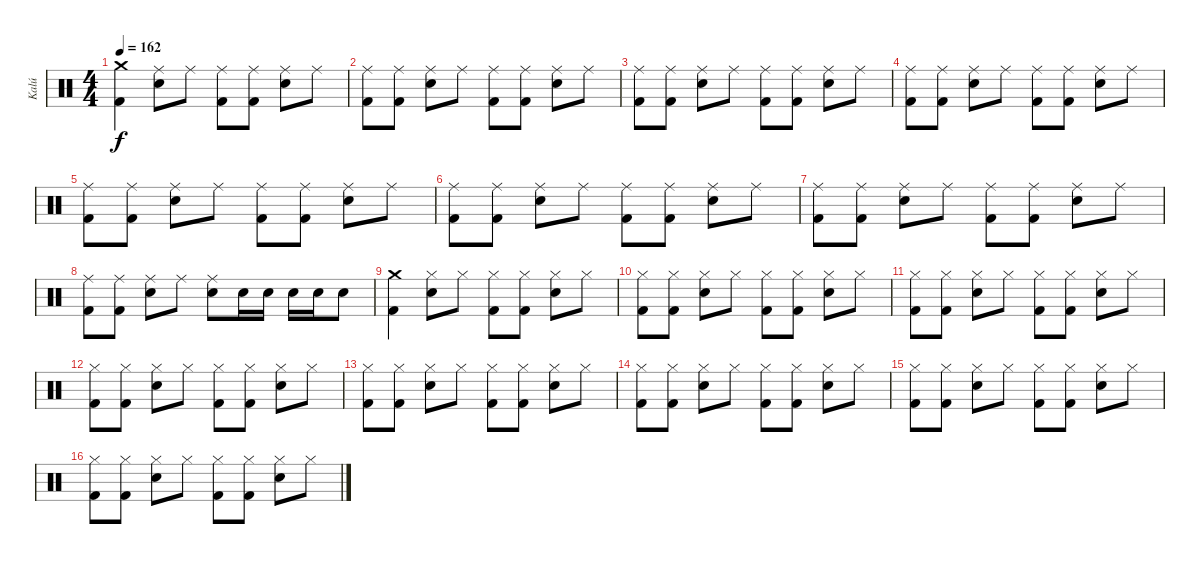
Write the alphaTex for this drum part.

\track ("Kalú" "Kalú") {instrument percussion}
\staff {score}
\articulation defaults
\ts (4 4)
\tempo 162
\clef neutral
\ks c
("Crash medium (hit)" "Kick (hit) 2").4{dy f} ("Ride (middle)" "Electric Snare (hit)").8 "Ride (middle)".8 ("Ride (middle)" "Kick (hit) 2").8 ("Ride (middle)" "Kick (hit) 2").8 ("Ride (middle)" "Electric Snare (hit)").8 "Ride (middle)".8 |
("Ride (middle)" "Kick (hit) 2").8 ("Ride (middle)" "Kick (hit) 2").8 ("Ride (middle)" "Electric Snare (hit)").8 "Ride (middle)".8 ("Ride (middle)" "Kick (hit) 2").8 ("Ride (middle)" "Kick (hit) 2").8 ("Ride (middle)" "Electric Snare (hit)").8 "Ride (middle)".8 |
("Ride (middle)" "Kick (hit) 2").8 ("Ride (middle)" "Kick (hit) 2").8 ("Ride (middle)" "Electric Snare (hit)").8 "Ride (middle)".8 ("Ride (middle)" "Kick (hit) 2").8 ("Ride (middle)" "Kick (hit) 2").8 ("Ride (middle)" "Electric Snare (hit)").8 "Ride (middle)".8 |
("Ride (middle)" "Kick (hit) 2").8 ("Ride (middle)" "Kick (hit) 2").8 ("Ride (middle)" "Electric Snare (hit)").8 "Ride (middle)".8 ("Ride (middle)" "Kick (hit) 2").8 ("Ride (middle)" "Kick (hit) 2").8 ("Ride (middle)" "Electric Snare (hit)").8 "Ride (middle)".8 |
("Ride (middle)" "Kick (hit) 2").8 ("Ride (middle)" "Kick (hit) 2").8 ("Ride (middle)" "Electric Snare (hit)").8 "Ride (middle)".8 ("Ride (middle)" "Kick (hit) 2").8 ("Ride (middle)" "Kick (hit) 2").8 ("Ride (middle)" "Electric Snare (hit)").8 "Ride (middle)".8 |
("Ride (middle)" "Kick (hit) 2").8 ("Ride (middle)" "Kick (hit) 2").8 ("Ride (middle)" "Electric Snare (hit)").8 "Ride (middle)".8 ("Ride (middle)" "Kick (hit) 2").8 ("Ride (middle)" "Kick (hit) 2").8 ("Ride (middle)" "Electric Snare (hit)").8 "Ride (middle)".8 |
("Ride (middle)" "Kick (hit) 2").8 ("Ride (middle)" "Kick (hit) 2").8 ("Ride (middle)" "Electric Snare (hit)").8 "Ride (middle)".8 ("Ride (middle)" "Kick (hit) 2").8 ("Ride (middle)" "Kick (hit) 2").8 ("Ride (middle)" "Electric Snare (hit)").8 "Ride (middle)".8 |
("Ride (middle)" "Kick (hit) 2").8 ("Ride (middle)" "Kick (hit) 2").8 ("Ride (middle)" "Electric Snare (hit)").8 "Ride (middle)".8 ("Ride (middle)" "Electric Snare (hit)").8 "Electric Snare (hit)".16 "Electric Snare (hit)".16 "Electric Snare (hit)".16 "Electric Snare (hit)".16 "Electric Snare (hit)".8 |
("Crash medium (hit)" "Kick (hit) 2").4 ("Hi-Hat (closed)" "Electric Snare (hit)").8 "Hi-Hat (closed)".8 ("Hi-Hat (closed)" "Kick (hit) 2").8 ("Hi-Hat (closed)" "Kick (hit) 2").8 ("Hi-Hat (closed)" "Electric Snare (hit)").8 "Hi-Hat (closed)".8 |
("Hi-Hat (closed)" "Kick (hit) 2").8 ("Hi-Hat (closed)" "Kick (hit) 2").8 ("Hi-Hat (closed)" "Electric Snare (hit)").8 "Hi-Hat (closed)".8 ("Hi-Hat (closed)" "Kick (hit) 2").8 ("Hi-Hat (closed)" "Kick (hit) 2").8 ("Hi-Hat (closed)" "Electric Snare (hit)").8 "Hi-Hat (closed)".8 |
("Hi-Hat (closed)" "Kick (hit) 2").8 ("Hi-Hat (closed)" "Kick (hit) 2").8 ("Hi-Hat (closed)" "Electric Snare (hit)").8 "Hi-Hat (closed)".8 ("Hi-Hat (closed)" "Kick (hit) 2").8 ("Hi-Hat (closed)" "Kick (hit) 2").8 ("Hi-Hat (closed)" "Electric Snare (hit)").8 "Hi-Hat (closed)".8 |
("Hi-Hat (closed)" "Kick (hit) 2").8 ("Hi-Hat (closed)" "Kick (hit) 2").8 ("Hi-Hat (closed)" "Electric Snare (hit)").8 "Hi-Hat (closed)".8 ("Hi-Hat (closed)" "Kick (hit) 2").8 ("Hi-Hat (closed)" "Kick (hit) 2").8 ("Hi-Hat (closed)" "Electric Snare (hit)").8 "Hi-Hat (closed)".8 |
("Hi-Hat (closed)" "Kick (hit) 2").8 ("Hi-Hat (closed)" "Kick (hit) 2").8 ("Hi-Hat (closed)" "Electric Snare (hit)").8 "Hi-Hat (closed)".8 ("Hi-Hat (closed)" "Kick (hit) 2").8 ("Hi-Hat (closed)" "Kick (hit) 2").8 ("Hi-Hat (closed)" "Electric Snare (hit)").8 "Hi-Hat (closed)".8 |
("Hi-Hat (closed)" "Kick (hit) 2").8 ("Hi-Hat (closed)" "Kick (hit) 2").8 ("Hi-Hat (closed)" "Electric Snare (hit)").8 "Hi-Hat (closed)".8 ("Hi-Hat (closed)" "Kick (hit) 2").8 ("Hi-Hat (closed)" "Kick (hit) 2").8 ("Hi-Hat (closed)" "Electric Snare (hit)").8 "Hi-Hat (closed)".8 |
("Hi-Hat (closed)" "Kick (hit) 2").8 ("Hi-Hat (closed)" "Kick (hit) 2").8 ("Hi-Hat (closed)" "Electric Snare (hit)").8 "Hi-Hat (closed)".8 ("Hi-Hat (closed)" "Kick (hit) 2").8 ("Hi-Hat (closed)" "Kick (hit) 2").8 ("Hi-Hat (closed)" "Electric Snare (hit)").8 "Hi-Hat (closed)".8 |
("Hi-Hat (closed)" "Kick (hit) 2").8 ("Hi-Hat (closed)" "Kick (hit) 2").8 ("Hi-Hat (closed)" "Electric Snare (hit)").8 "Hi-Hat (closed)".8 ("Hi-Hat (closed)" "Kick (hit) 2").8 ("Hi-Hat (closed)" "Kick (hit) 2").8 ("Hi-Hat (closed)" "Electric Snare (hit)").8 "Hi-Hat (closed)".8
